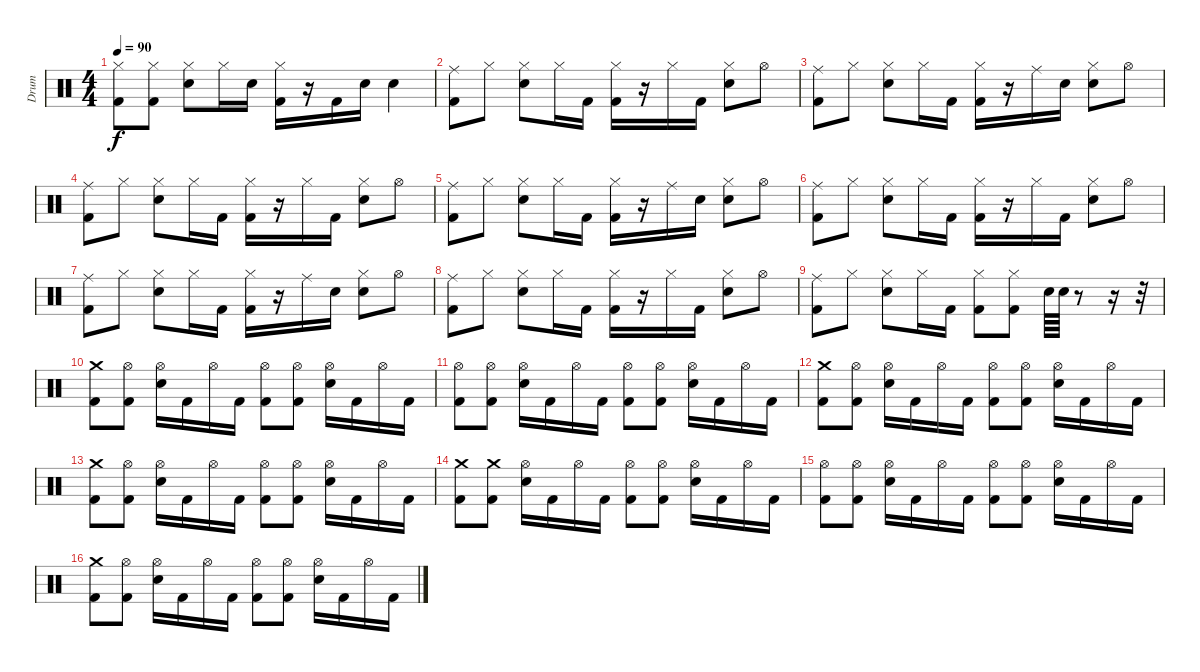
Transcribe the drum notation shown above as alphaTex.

\track ("Drum" "Drum") {instrument percussion}
\staff {score}
\articulation defaults
\ts (4 4)
\tempo 90
\clef neutral
\ks c
("Hi-Hat (closed)" "Kick (hit) 2").8{dy f} ("Hi-Hat (closed)" "Kick (hit) 2").8 ("Hi-Hat (closed)" "Snare (hit) 2").8 "Hi-Hat (closed)".16 "Snare (hit) 2".16 ("Hi-Hat (closed)" "Kick (hit) 2").16 r.16 "Kick (hit) 2".16 "Snare (hit) 2".16 "Snare (hit) 2".4 |
("Ride (middle)" "Kick (hit) 2").8 "Hi-Hat (closed)".8 ("Hi-Hat (closed)" "Snare (hit) 2").8 "Hi-Hat (closed)".16 "Kick (hit) 2".16 ("Hi-Hat (closed)" "Kick (hit) 2").16 r.16 "Hi-Hat (closed)".16 "Kick (hit) 2".16 ("Hi-Hat (closed)" "Snare (hit) 2").8 "Hi-Hat (open)".8 |
("Ride (middle)" "Kick (hit) 2").8 "Hi-Hat (closed)".8 ("Hi-Hat (closed)" "Snare (hit) 2").8 "Hi-Hat (closed)".16 "Kick (hit) 2".16 ("Hi-Hat (closed)" "Kick (hit) 2").16 r.16 "Ride (middle)".16 "Snare (hit) 2".16 ("Hi-Hat (closed)" "Snare (hit) 2").8 "Hi-Hat (open)".8 |
("Ride (middle)" "Kick (hit) 2").8 "Hi-Hat (closed)".8 ("Hi-Hat (closed)" "Snare (hit) 2").8 "Hi-Hat (closed)".16 "Kick (hit) 2".16 ("Hi-Hat (closed)" "Kick (hit) 2").16 r.16 "Hi-Hat (closed)".16 "Kick (hit) 2".16 ("Hi-Hat (closed)" "Snare (hit) 2").8 "Hi-Hat (open)".8 |
("Ride (middle)" "Kick (hit) 2").8 "Hi-Hat (closed)".8 ("Hi-Hat (closed)" "Snare (hit) 2").8 "Hi-Hat (closed)".16 "Kick (hit) 2".16 ("Hi-Hat (closed)" "Kick (hit) 2").16 r.16 "Ride (middle)".16 "Snare (hit) 2".16 ("Hi-Hat (closed)" "Snare (hit) 2").8 "Hi-Hat (open)".8 |
("Ride (middle)" "Kick (hit) 2").8 "Hi-Hat (closed)".8 ("Hi-Hat (closed)" "Snare (hit) 2").8 "Hi-Hat (closed)".16 "Kick (hit) 2".16 ("Hi-Hat (closed)" "Kick (hit) 2").16 r.16 "Hi-Hat (closed)".16 "Kick (hit) 2".16 ("Hi-Hat (closed)" "Snare (hit) 2").8 "Hi-Hat (open)".8 |
("Ride (middle)" "Kick (hit) 2").8 "Hi-Hat (closed)".8 ("Hi-Hat (closed)" "Snare (hit) 2").8 "Hi-Hat (closed)".16 "Kick (hit) 2".16 ("Hi-Hat (closed)" "Kick (hit) 2").16 r.16 "Ride (middle)".16 "Snare (hit) 2".16 ("Hi-Hat (closed)" "Snare (hit) 2").8 "Hi-Hat (open)".8 |
("Ride (middle)" "Kick (hit) 2").8 "Hi-Hat (closed)".8 ("Hi-Hat (closed)" "Snare (hit) 2").8 "Hi-Hat (closed)".16 "Kick (hit) 2".16 ("Hi-Hat (closed)" "Kick (hit) 2").16 r.16 "Hi-Hat (closed)".16 "Kick (hit) 2".16 ("Hi-Hat (closed)" "Snare (hit) 2").8 "Hi-Hat (open)".8 |
("Ride (middle)" "Kick (hit) 2").8 "Hi-Hat (closed)".8 ("Hi-Hat (closed)" "Snare (hit) 2").8 "Hi-Hat (closed)".16 "Kick (hit) 2".16 ("Hi-Hat (closed)" "Kick (hit) 2").8 ("Hi-Hat (closed)" "Kick (hit) 2").8 "Snare (hit) 2".64 "Snare (hit) 2".64 r.8 r.16 r.32 |
("Crash medium (hit)" "Kick (hit) 2").8 ("Hi-Hat (open)" "Kick (hit) 2").8 ("Hi-Hat (open)" "Snare (hit) 2").16 "Kick (hit) 2".16 "Hi-Hat (open)".16 "Kick (hit) 2".16 ("Hi-Hat (open)" "Kick (hit) 2").8 ("Hi-Hat (open)" "Kick (hit) 2").8 ("Hi-Hat (open)" "Snare (hit) 2").16 "Kick (hit) 2".16 "Hi-Hat (open)".16 "Kick (hit) 2".16 |
("Hi-Hat (open)" "Kick (hit) 2").8 ("Hi-Hat (open)" "Kick (hit) 2").8 ("Hi-Hat (open)" "Snare (hit) 2").16 "Kick (hit) 2".16 "Hi-Hat (open)".16 "Kick (hit) 2".16 ("Hi-Hat (open)" "Kick (hit) 2").8 ("Hi-Hat (open)" "Kick (hit) 2").8 ("Hi-Hat (open)" "Snare (hit) 2").16 "Kick (hit) 2".16 "Hi-Hat (open)".16 "Kick (hit) 2".16 |
("Crash medium (hit)" "Kick (hit) 2").8 ("Hi-Hat (open)" "Kick (hit) 2").8 ("Hi-Hat (open)" "Snare (hit) 2").16 "Kick (hit) 2".16 "Hi-Hat (open)".16 "Kick (hit) 2".16 ("Hi-Hat (open)" "Kick (hit) 2").8 ("Hi-Hat (open)" "Kick (hit) 2").8 ("Hi-Hat (open)" "Snare (hit) 2").16 "Kick (hit) 2".16 "Hi-Hat (open)".16 "Kick (hit) 2".16 |
("Crash medium (hit)" "Kick (hit) 2").8 ("Hi-Hat (open)" "Kick (hit) 2").8 ("Hi-Hat (open)" "Snare (hit) 2").16 "Kick (hit) 2".16 "Hi-Hat (open)".16 "Kick (hit) 2".16 ("Hi-Hat (open)" "Kick (hit) 2").8 ("Hi-Hat (open)" "Kick (hit) 2").8 ("Hi-Hat (open)" "Snare (hit) 2").16 "Kick (hit) 2".16 "Hi-Hat (open)".16 "Kick (hit) 2".16 |
("Crash medium (hit)" "Kick (hit) 2").8 ("Crash medium (hit)" "Kick (hit) 2").8 ("Hi-Hat (open)" "Snare (hit) 2").16 "Kick (hit) 2".16 "Hi-Hat (open)".16 "Kick (hit) 2".16 ("Hi-Hat (open)" "Kick (hit) 2").8 ("Hi-Hat (open)" "Kick (hit) 2").8 ("Hi-Hat (open)" "Snare (hit) 2").16 "Kick (hit) 2".16 "Hi-Hat (open)".16 "Kick (hit) 2".16 |
("Hi-Hat (open)" "Kick (hit) 2").8 ("Hi-Hat (open)" "Kick (hit) 2").8 ("Hi-Hat (open)" "Snare (hit) 2").16 "Kick (hit) 2".16 "Hi-Hat (open)".16 "Kick (hit) 2".16 ("Hi-Hat (open)" "Kick (hit) 2").8 ("Hi-Hat (open)" "Kick (hit) 2").8 ("Hi-Hat (open)" "Snare (hit) 2").16 "Kick (hit) 2".16 "Hi-Hat (open)".16 "Kick (hit) 2".16 |
("Crash medium (hit)" "Kick (hit) 2").8 ("Hi-Hat (open)" "Kick (hit) 2").8 ("Hi-Hat (open)" "Snare (hit) 2").16 "Kick (hit) 2".16 "Hi-Hat (open)".16 "Kick (hit) 2".16 ("Hi-Hat (open)" "Kick (hit) 2").8 ("Hi-Hat (open)" "Kick (hit) 2").8 ("Hi-Hat (open)" "Snare (hit) 2").16 "Kick (hit) 2".16 "Hi-Hat (open)".16 "Kick (hit) 2".16
